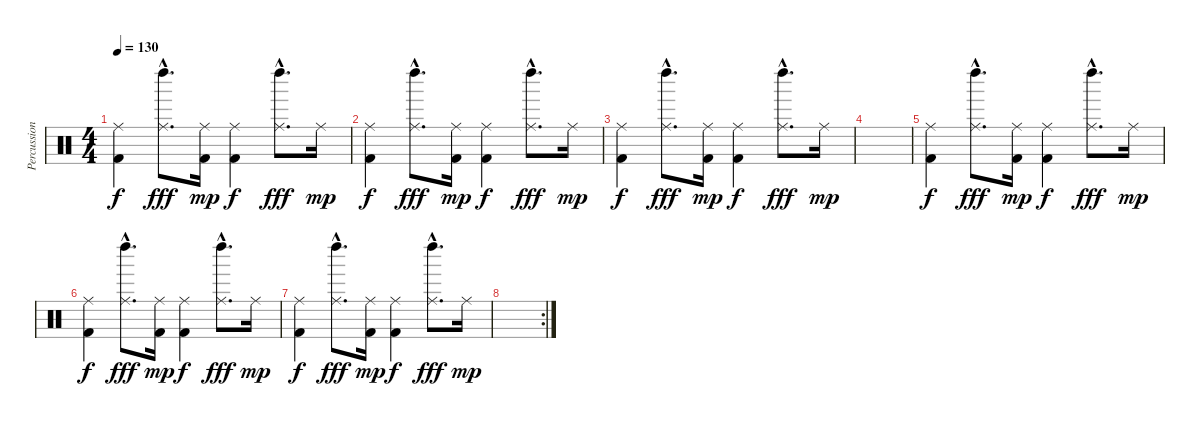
\track ("Percussion" "Percussion") {instrument percussion}
\staff {score}
\articulation defaults
\ts (4 4)
\tempo 130
\clef neutral
\ks c
("Ride (middle)" "Kick (hit) 2").4{dy f} ("Ride (middle)"{hac} "Left Maraca (hit)"{hac}).8{d dy fff} ("Ride (middle)" "Kick (hit) 2").16{dy mp} ("Ride (middle)" "Kick (hit) 2").4{dy f} ("Ride (middle)"{hac} "Left Maraca (hit)"{hac}).8{d dy fff} "Ride (middle)".16{dy mp} |
("Ride (middle)" "Kick (hit) 2").4{dy f} ("Ride (middle)"{hac} "Left Maraca (hit)"{hac}).8{d dy fff} ("Ride (middle)" "Kick (hit) 2").16{dy mp} ("Ride (middle)" "Kick (hit) 2").4{dy f} ("Ride (middle)"{hac} "Left Maraca (hit)"{hac}).8{d dy fff} "Ride (middle)".16{dy mp} |
("Ride (middle)" "Kick (hit) 2").4{dy f} ("Ride (middle)"{hac} "Left Maraca (hit)"{hac}).8{d dy fff} ("Ride (middle)" "Kick (hit) 2").16{dy mp} ("Ride (middle)" "Kick (hit) 2").4{dy f} ("Ride (middle)"{hac} "Left Maraca (hit)"{hac}).8{d dy fff} "Ride (middle)".16{dy mp} |
|
("Ride (middle)" "Kick (hit) 2").4{dy f} ("Ride (middle)"{hac} "Left Maraca (hit)"{hac}).8{d dy fff} ("Ride (middle)" "Kick (hit) 2").16{dy mp} ("Ride (middle)" "Kick (hit) 2").4{dy f} ("Ride (middle)"{hac} "Left Maraca (hit)"{hac}).8{d dy fff} "Ride (middle)".16{dy mp} |
("Ride (middle)" "Kick (hit) 2").4{dy f} ("Ride (middle)"{hac} "Left Maraca (hit)"{hac}).8{d dy fff} ("Ride (middle)" "Kick (hit) 2").16{dy mp} ("Ride (middle)" "Kick (hit) 2").4{dy f} ("Ride (middle)"{hac} "Left Maraca (hit)"{hac}).8{d dy fff} "Ride (middle)".16{dy mp} |
("Ride (middle)" "Kick (hit) 2").4{dy f} ("Ride (middle)"{hac} "Left Maraca (hit)"{hac}).8{d dy fff} ("Ride (middle)" "Kick (hit) 2").16{dy mp} ("Ride (middle)" "Kick (hit) 2").4{dy f} ("Ride (middle)"{hac} "Left Maraca (hit)"{hac}).8{d dy fff} "Ride (middle)".16{dy mp} |
\rc 2
